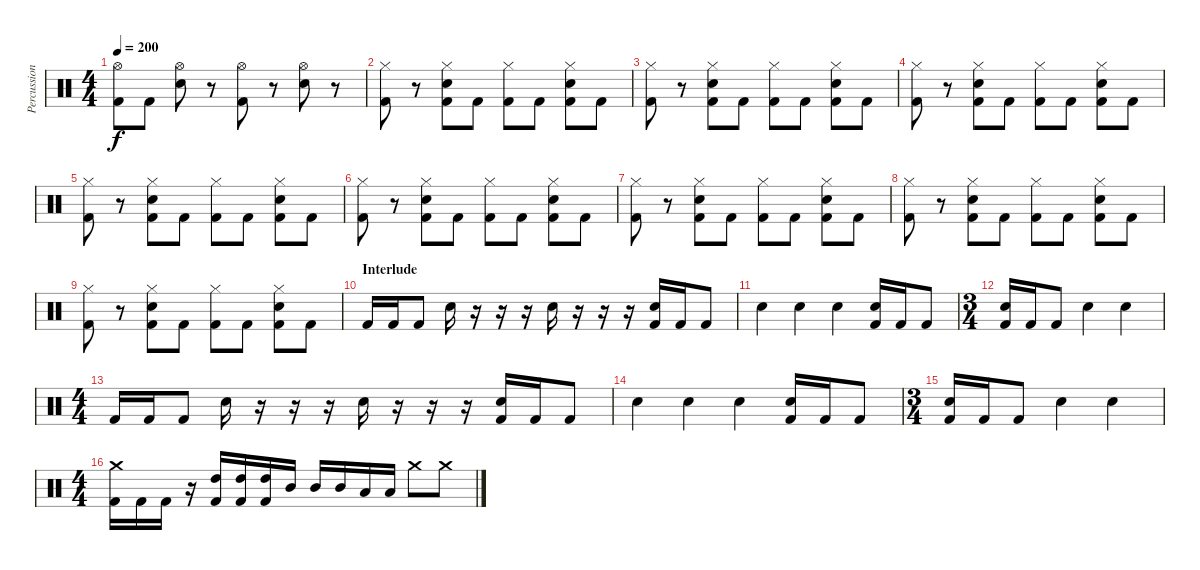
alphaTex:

\track ("Percussions ( Brylle )" "Percussion") {instrument percussion}
\staff {score}
\articulation defaults
\ts (4 4)
\tempo 200
\clef neutral
\ks c
("Hi-Hat (open)" "Kick (hit) 2").8{dy f} "Kick (hit) 2".8 ("Hi-Hat (open)" "Electric Snare (hit)").8 r.8 ("Hi-Hat (open)" "Kick (hit) 2").8 r.8 ("Hi-Hat (open)" "Electric Snare (hit)").8 r.8 |
("Hi-Hat (closed)" "Kick (hit) 2").8 r.8 ("Hi-Hat (closed)" "Electric Snare (hit)" "Kick (hit) 2").8 "Kick (hit) 2".8 ("Hi-Hat (closed)" "Kick (hit) 2").8 "Kick (hit) 2".8 ("Hi-Hat (closed)" "Electric Snare (hit)" "Kick (hit) 2").8 "Kick (hit) 2".8 |
("Hi-Hat (closed)" "Kick (hit) 2").8 r.8 ("Hi-Hat (closed)" "Electric Snare (hit)" "Kick (hit) 2").8 "Kick (hit) 2".8 ("Hi-Hat (closed)" "Kick (hit) 2").8 "Kick (hit) 2".8 ("Hi-Hat (closed)" "Electric Snare (hit)" "Kick (hit) 2").8 "Kick (hit) 2".8 |
("Hi-Hat (closed)" "Kick (hit) 2").8 r.8 ("Hi-Hat (closed)" "Electric Snare (hit)" "Kick (hit) 2").8 "Kick (hit) 2".8 ("Hi-Hat (closed)" "Kick (hit) 2").8 "Kick (hit) 2".8 ("Hi-Hat (closed)" "Electric Snare (hit)" "Kick (hit) 2").8 "Kick (hit) 2".8 |
("Hi-Hat (closed)" "Kick (hit) 2").8 r.8 ("Hi-Hat (closed)" "Electric Snare (hit)" "Kick (hit) 2").8 "Kick (hit) 2".8 ("Hi-Hat (closed)" "Kick (hit) 2").8 "Kick (hit) 2".8 ("Hi-Hat (closed)" "Electric Snare (hit)" "Kick (hit) 2").8 "Kick (hit) 2".8 |
("Hi-Hat (closed)" "Kick (hit) 2").8 r.8 ("Hi-Hat (closed)" "Electric Snare (hit)" "Kick (hit) 2").8 "Kick (hit) 2".8 ("Hi-Hat (closed)" "Kick (hit) 2").8 "Kick (hit) 2".8 ("Hi-Hat (closed)" "Electric Snare (hit)" "Kick (hit) 2").8 "Kick (hit) 2".8 |
("Hi-Hat (closed)" "Kick (hit) 2").8 r.8 ("Hi-Hat (closed)" "Electric Snare (hit)" "Kick (hit) 2").8 "Kick (hit) 2".8 ("Hi-Hat (closed)" "Kick (hit) 2").8 "Kick (hit) 2".8 ("Hi-Hat (closed)" "Electric Snare (hit)" "Kick (hit) 2").8 "Kick (hit) 2".8 |
("Hi-Hat (closed)" "Kick (hit) 2").8 r.8 ("Hi-Hat (closed)" "Electric Snare (hit)" "Kick (hit) 2").8 "Kick (hit) 2".8 ("Hi-Hat (closed)" "Kick (hit) 2").8 "Kick (hit) 2".8 ("Hi-Hat (closed)" "Electric Snare (hit)" "Kick (hit) 2").8 "Kick (hit) 2".8 |
("Hi-Hat (closed)" "Kick (hit) 2").8 r.8 ("Hi-Hat (closed)" "Electric Snare (hit)" "Kick (hit) 2").8 "Kick (hit) 2".8 ("Hi-Hat (closed)" "Kick (hit) 2").8 "Kick (hit) 2".8 ("Hi-Hat (closed)" "Electric Snare (hit)" "Kick (hit) 2").8 "Kick (hit) 2".8 |
\section ("" "Interlude")
"Kick (hit) 2".16 "Kick (hit) 2".16 "Kick (hit) 2".8 "Electric Snare (hit)".16 r.16 r.16 r.16 "Electric Snare (hit)".16 r.16 r.16 r.16 ("Electric Snare (hit)" "Kick (hit) 2").16 "Kick (hit) 2".16 "Kick (hit) 2".8 |
"Electric Snare (hit)".4 "Electric Snare (hit)".4 "Electric Snare (hit)".4 ("Electric Snare (hit)" "Kick (hit) 2").16 "Kick (hit) 2".16 "Kick (hit) 2".8 |
\ts (3 4)
("Electric Snare (hit)" "Kick (hit) 2").16 "Kick (hit) 2".16 "Kick (hit) 2".8 "Electric Snare (hit)".4 "Electric Snare (hit)".4 |
\ts (4 4)
"Kick (hit) 2".16 "Kick (hit) 2".16 "Kick (hit) 2".8 "Electric Snare (hit)".16 r.16 r.16 r.16 "Electric Snare (hit)".16 r.16 r.16 r.16 ("Electric Snare (hit)" "Kick (hit) 2").16 "Kick (hit) 2".16 "Kick (hit) 2".8 |
"Electric Snare (hit)".4 "Electric Snare (hit)".4 "Electric Snare (hit)".4 ("Electric Snare (hit)" "Kick (hit) 2").16 "Kick (hit) 2".16 "Kick (hit) 2".8 |
\ts (3 4)
("Electric Snare (hit)" "Kick (hit) 2").16 "Kick (hit) 2".16 "Kick (hit) 2".8 "Electric Snare (hit)".4 "Electric Snare (hit)".4 |
\ts (4 4)
("Crash medium (hit)" "Kick (hit) 2").16 "Kick (hit) 2".16 "Kick (hit) 2".16 r.16 ("High Tom (hit)" "Kick (hit) 2").16 ("High Tom (hit)" "Kick (hit) 2").16 ("High Tom (hit)" "Kick (hit) 2").16 "Mid Tom (hit)".16 "Mid Tom (hit)".16 "Mid Tom (hit)".16 "Low Tom (hit)".16 "Low Tom (hit)".16 "Crash medium (hit)".8 "Crash medium (hit)".8
